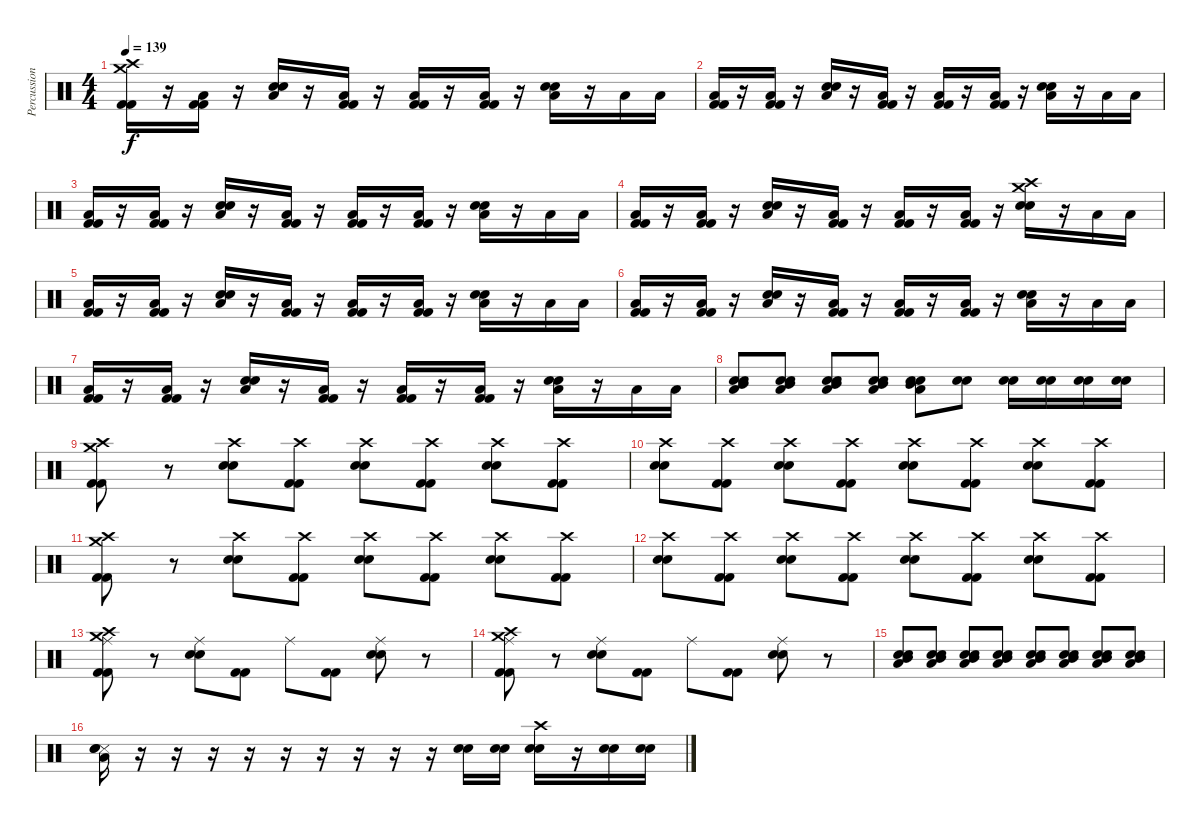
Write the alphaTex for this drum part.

\track ("Percussioni" "Percussion") {instrument percussion}
\staff {score}
\articulation defaults
\ts (4 4)
\tempo 139
\clef neutral
\ks c
("Crash high (hit)" "Crash medium (hit)" "Kick (hit) 2" "Kick (hit) 2").16{dy f} r.16 ("Low Tom (hit)" "Kick (hit) 2" "Kick (hit) 2").16 r.16 ("Low Tom (hit)" "Snare (hit) 2" "Electric Snare (hit)").16 r.16 ("Low Tom (hit)" "Kick (hit) 2" "Kick (hit) 2").16 r.16 ("Low Tom (hit)" "Kick (hit) 2" "Kick (hit) 2").16 r.16 ("Low Tom (hit)" "Kick (hit) 2" "Kick (hit) 2").16 r.16 ("Low Tom (hit)" "Snare (hit) 2" "Electric Snare (hit)").16 r.16 "Low Tom (hit)".16 "Low Tom (hit)".16 |
("Low Tom (hit)" "Kick (hit) 2" "Kick (hit) 2").16 r.16 ("Low Tom (hit)" "Kick (hit) 2" "Kick (hit) 2").16 r.16 ("Low Tom (hit)" "Snare (hit) 2" "Electric Snare (hit)").16 r.16 ("Low Tom (hit)" "Kick (hit) 2" "Kick (hit) 2").16 r.16 ("Low Tom (hit)" "Kick (hit) 2" "Kick (hit) 2").16 r.16 ("Low Tom (hit)" "Kick (hit) 2" "Kick (hit) 2").16 r.16 ("Low Tom (hit)" "Snare (hit) 2" "Electric Snare (hit)").16 r.16 "Low Tom (hit)".16 "Low Tom (hit)".16 |
("Low Tom (hit)" "Kick (hit) 2" "Kick (hit) 2").16 r.16 ("Low Tom (hit)" "Kick (hit) 2" "Kick (hit) 2").16 r.16 ("Low Tom (hit)" "Snare (hit) 2" "Electric Snare (hit)").16 r.16 ("Low Tom (hit)" "Kick (hit) 2" "Kick (hit) 2").16 r.16 ("Low Tom (hit)" "Kick (hit) 2" "Kick (hit) 2").16 r.16 ("Low Tom (hit)" "Kick (hit) 2" "Kick (hit) 2").16 r.16 ("Low Tom (hit)" "Snare (hit) 2" "Electric Snare (hit)").16 r.16 "Low Tom (hit)".16 "Low Tom (hit)".16 |
("Low Tom (hit)" "Kick (hit) 2" "Kick (hit) 2").16 r.16 ("Low Tom (hit)" "Kick (hit) 2" "Kick (hit) 2").16 r.16 ("Low Tom (hit)" "Snare (hit) 2" "Electric Snare (hit)").16 r.16 ("Low Tom (hit)" "Kick (hit) 2" "Kick (hit) 2").16 r.16 ("Low Tom (hit)" "Kick (hit) 2" "Kick (hit) 2").16 r.16 ("Low Tom (hit)" "Kick (hit) 2" "Kick (hit) 2").16 r.16 ("Crash high (hit)" "Crash medium (hit)" "Snare (hit) 2" "Electric Snare (hit)").16 r.16 "Low Tom (hit)".16 "Low Tom (hit)".16 |
("Low Tom (hit)" "Kick (hit) 2" "Kick (hit) 2").16 r.16 ("Low Tom (hit)" "Kick (hit) 2" "Kick (hit) 2").16 r.16 ("Low Tom (hit)" "Snare (hit) 2" "Electric Snare (hit)").16 r.16 ("Low Tom (hit)" "Kick (hit) 2" "Kick (hit) 2").16 r.16 ("Low Tom (hit)" "Kick (hit) 2" "Kick (hit) 2").16 r.16 ("Low Tom (hit)" "Kick (hit) 2" "Kick (hit) 2").16 r.16 ("Low Tom (hit)" "Snare (hit) 2" "Electric Snare (hit)").16 r.16 "Low Tom (hit)".16 "Low Tom (hit)".16 |
("Low Tom (hit)" "Kick (hit) 2" "Kick (hit) 2").16 r.16 ("Low Tom (hit)" "Kick (hit) 2" "Kick (hit) 2").16 r.16 ("Low Tom (hit)" "Snare (hit) 2" "Electric Snare (hit)").16 r.16 ("Low Tom (hit)" "Kick (hit) 2" "Kick (hit) 2").16 r.16 ("Low Tom (hit)" "Kick (hit) 2" "Kick (hit) 2").16 r.16 ("Low Tom (hit)" "Kick (hit) 2" "Kick (hit) 2").16 r.16 ("Low Tom (hit)" "Snare (hit) 2" "Electric Snare (hit)").16 r.16 "Low Tom (hit)".16 "Low Tom (hit)".16 |
("Low Tom (hit)" "Kick (hit) 2" "Kick (hit) 2").16 r.16 ("Low Tom (hit)" "Kick (hit) 2" "Kick (hit) 2").16 r.16 ("Low Tom (hit)" "Snare (hit) 2" "Electric Snare (hit)").16 r.16 ("Low Tom (hit)" "Kick (hit) 2" "Kick (hit) 2").16 r.16 ("Low Tom (hit)" "Kick (hit) 2" "Kick (hit) 2").16 r.16 ("Low Tom (hit)" "Kick (hit) 2" "Kick (hit) 2").16 r.16 ("Low Tom (hit)" "Snare (hit) 2" "Electric Snare (hit)").16 r.16 "Low Tom (hit)".16 "Low Tom (hit)".16 |
("Low Tom (hit)" "Mid Tom (hit)" "Electric Snare (hit)" "Snare (hit) 2").8 ("Mid Tom (hit)" "Low Tom (hit)" "Electric Snare (hit)" "Snare (hit) 2").8 ("Low Tom (hit)" "Mid Tom (hit)" "Electric Snare (hit)" "Snare (hit) 2").8 ("Low Tom (hit)" "Mid Tom (hit)" "Electric Snare (hit)" "Snare (hit) 2").8 ("Low Tom (hit)" "Mid Tom (hit)" "Electric Snare (hit)" "Snare (hit) 2").8 ("Snare (hit) 2" "Electric Snare (hit)").8 ("Snare (hit) 2" "Electric Snare (hit)").16 ("Snare (hit) 2" "Electric Snare (hit)").16 ("Snare (hit) 2" "Electric Snare (hit)").16 ("Snare (hit) 2" "Electric Snare (hit)").16 |
("Crash medium (hit)" "Crash high (hit)" "Kick (hit) 2" "Kick (hit) 2").8 r.8 ("Crash high (hit)" "Electric Snare (hit)" "Snare (hit) 2").8 ("Crash high (hit)" "Kick (hit) 2" "Kick (hit) 2").8 ("Crash high (hit)" "Electric Snare (hit)" "Snare (hit) 2").8 ("Crash high (hit)" "Kick (hit) 2" "Kick (hit) 2").8 ("Crash high (hit)" "Electric Snare (hit)" "Snare (hit) 2").8 ("Crash high (hit)" "Kick (hit) 2" "Kick (hit) 2").8 |
("Crash high (hit)" "Electric Snare (hit)" "Snare (hit) 2").8 ("Crash high (hit)" "Kick (hit) 2" "Kick (hit) 2").8 ("Crash high (hit)" "Electric Snare (hit)" "Snare (hit) 2").8 ("Crash high (hit)" "Kick (hit) 2" "Kick (hit) 2").8 ("Crash high (hit)" "Electric Snare (hit)" "Snare (hit) 2").8 ("Crash high (hit)" "Kick (hit) 2" "Kick (hit) 2").8 ("Crash high (hit)" "Electric Snare (hit)" "Snare (hit) 2").8 ("Crash high (hit)" "Kick (hit) 2" "Kick (hit) 2").8 |
("Crash medium (hit)" "Crash high (hit)" "Kick (hit) 2" "Kick (hit) 2").8 r.8 ("Crash high (hit)" "Electric Snare (hit)" "Snare (hit) 2").8 ("Crash high (hit)" "Kick (hit) 2" "Kick (hit) 2").8 ("Crash high (hit)" "Electric Snare (hit)" "Snare (hit) 2").8 ("Crash high (hit)" "Kick (hit) 2" "Kick (hit) 2").8 ("Crash high (hit)" "Electric Snare (hit)" "Snare (hit) 2").8 ("Crash high (hit)" "Kick (hit) 2" "Kick (hit) 2").8 |
("Crash high (hit)" "Electric Snare (hit)" "Snare (hit) 2").8 ("Crash high (hit)" "Kick (hit) 2" "Kick (hit) 2").8 ("Crash high (hit)" "Electric Snare (hit)" "Snare (hit) 2").8 ("Crash high (hit)" "Kick (hit) 2" "Kick (hit) 2").8 ("Crash high (hit)" "Electric Snare (hit)" "Snare (hit) 2").8 ("Crash high (hit)" "Kick (hit) 2" "Kick (hit) 2").8 ("Crash high (hit)" "Electric Snare (hit)" "Snare (hit) 2").8 ("Crash high (hit)" "Kick (hit) 2" "Kick (hit) 2").8 |
("Ride (middle)" "Crash medium (hit)" "Crash high (hit)" "Kick (hit) 2" "Kick (hit) 2").8 r.8 ("Ride (middle)" "Electric Snare (hit)" "Snare (hit) 2").8 ("Kick (hit) 2" "Kick (hit) 2").8 "Ride (middle)".8 ("Kick (hit) 2" "Kick (hit) 2").8 ("Ride (middle)" "Electric Snare (hit)" "Snare (hit) 2").8 r.8 |
("Ride (middle)" "Crash medium (hit)" "Crash high (hit)" "Kick (hit) 2" "Kick (hit) 2").8 r.8 ("Ride (middle)" "Electric Snare (hit)" "Snare (hit) 2").8 ("Kick (hit) 2" "Kick (hit) 2").8 "Ride (middle)".8 ("Kick (hit) 2" "Kick (hit) 2").8 ("Ride (middle)" "Electric Snare (hit)" "Snare (hit) 2").8 r.8 |
("Mid Tom (hit)" "Low Tom (hit)" "Electric Snare (hit)" "Snare (hit) 2").8 ("Mid Tom (hit)" "Low Tom (hit)" "Electric Snare (hit)" "Snare (hit) 2").8 ("Mid Tom (hit)" "Low Tom (hit)" "Electric Snare (hit)" "Snare (hit) 2").8 ("Mid Tom (hit)" "Low Tom (hit)" "Electric Snare (hit)" "Snare (hit) 2").8 ("Mid Tom (hit)" "Low Tom (hit)" "Electric Snare (hit)" "Snare (hit) 2").8 ("Mid Tom (hit)" "Low Tom (hit)" "Electric Snare (hit)" "Snare (hit) 2").8 ("Mid Tom (hit)" "Low Tom (hit)" "Electric Snare (hit)" "Snare (hit) 2").8 ("Mid Tom (hit)" "Low Tom (hit)" "Electric Snare (hit)" "Snare (hit) 2").8 |
("Snare (side stick) 3" "Low Tom (hit)" "Snare (hit) 2" "Electric Snare (hit)").16 r.16 r.16 r.16 r.16 r.16 r.16 r.16 r.16 r.16 ("Snare (hit) 2" "Electric Snare (hit)").16 ("Snare (hit) 2" "Electric Snare (hit)").16 ("Crash high (hit)" "Snare (hit) 2" "Electric Snare (hit)").16 r.16 ("Snare (hit) 2" "Electric Snare (hit)").16 ("Snare (hit) 2" "Electric Snare (hit)").16
